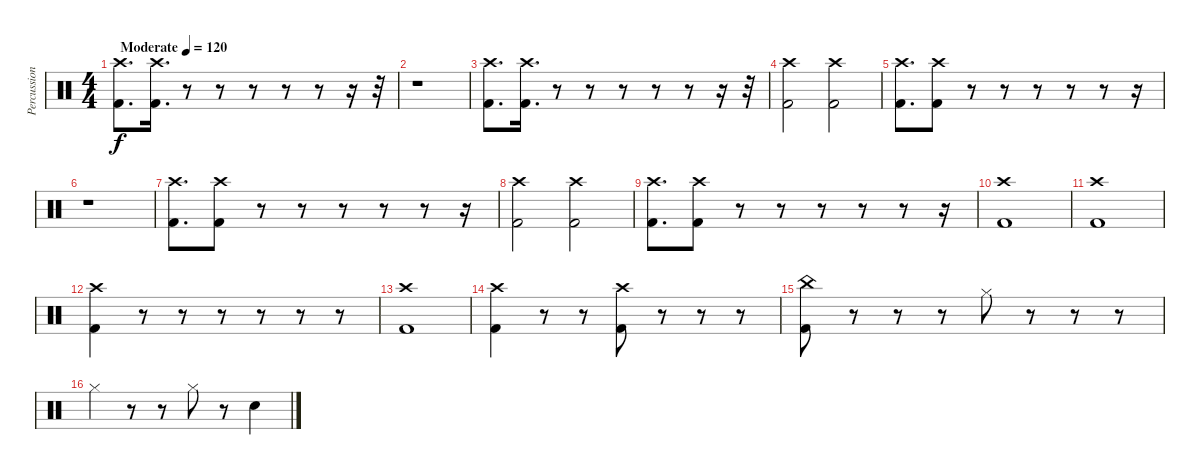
\track ("Percussion" "Percussion") {instrument percussion}
\staff {score}
\articulation defaults
\ts (4 4)
\tempo (120 "Moderate")
\clef neutral
\ks c
("Crash high (hit)" "Kick (hit) 2").8{d dy f} ("Crash high (hit)" "Kick (hit) 2").16{d} r.8 r.8 r.8 r.8 r.8 r.16 r.32 |
r.1 |
("Crash high (hit)" "Kick (hit) 2").8{d} ("Crash high (hit)" "Kick (hit) 2").16{d} r.8 r.8 r.8 r.8 r.8 r.16 r.32 |
("Crash high (hit)" "Kick (hit) 2").2 ("Crash high (hit)" "Kick (hit) 2").2 |
("Crash high (hit)" "Kick (hit) 2").8{d} ("Crash high (hit)" "Kick (hit) 2").8 r.8 r.8 r.8 r.8 r.8 r.16 |
r.1 |
("Crash high (hit)" "Kick (hit) 2").8{d} ("Crash high (hit)" "Kick (hit) 2").8 r.8 r.8 r.8 r.8 r.8 r.16 |
("Crash high (hit)" "Kick (hit) 2").2 ("Crash high (hit)" "Kick (hit) 2").2 |
("Crash high (hit)" "Kick (hit) 2").8{d} ("Crash high (hit)" "Kick (hit) 2").8 r.8 r.8 r.8 r.8 r.8 r.16 |
("Crash high (hit)" "Kick (hit) 2").1 |
("Crash high (hit)" "Kick (hit) 2").1 |
("Crash high (hit)" "Kick (hit) 2").4 r.8 r.8 r.8 r.8 r.8 r.8 |
("Crash high (hit)" "Kick (hit) 2").1 |
("Crash high (hit)" "Kick (hit) 2").4 r.8 r.8 ("Crash high (hit)" "Kick (hit) 2").8 r.8 r.8 r.8 |
("China (hit)" "Kick (hit) 2").8 r.8 r.8 r.8 "Hi-Hat (closed)".8 r.8 r.8 r.8 |
"Hi-Hat (closed)".4 r.8 r.8 "Hi-Hat (closed)".8 r.8 "Snare (hit) 2".4
